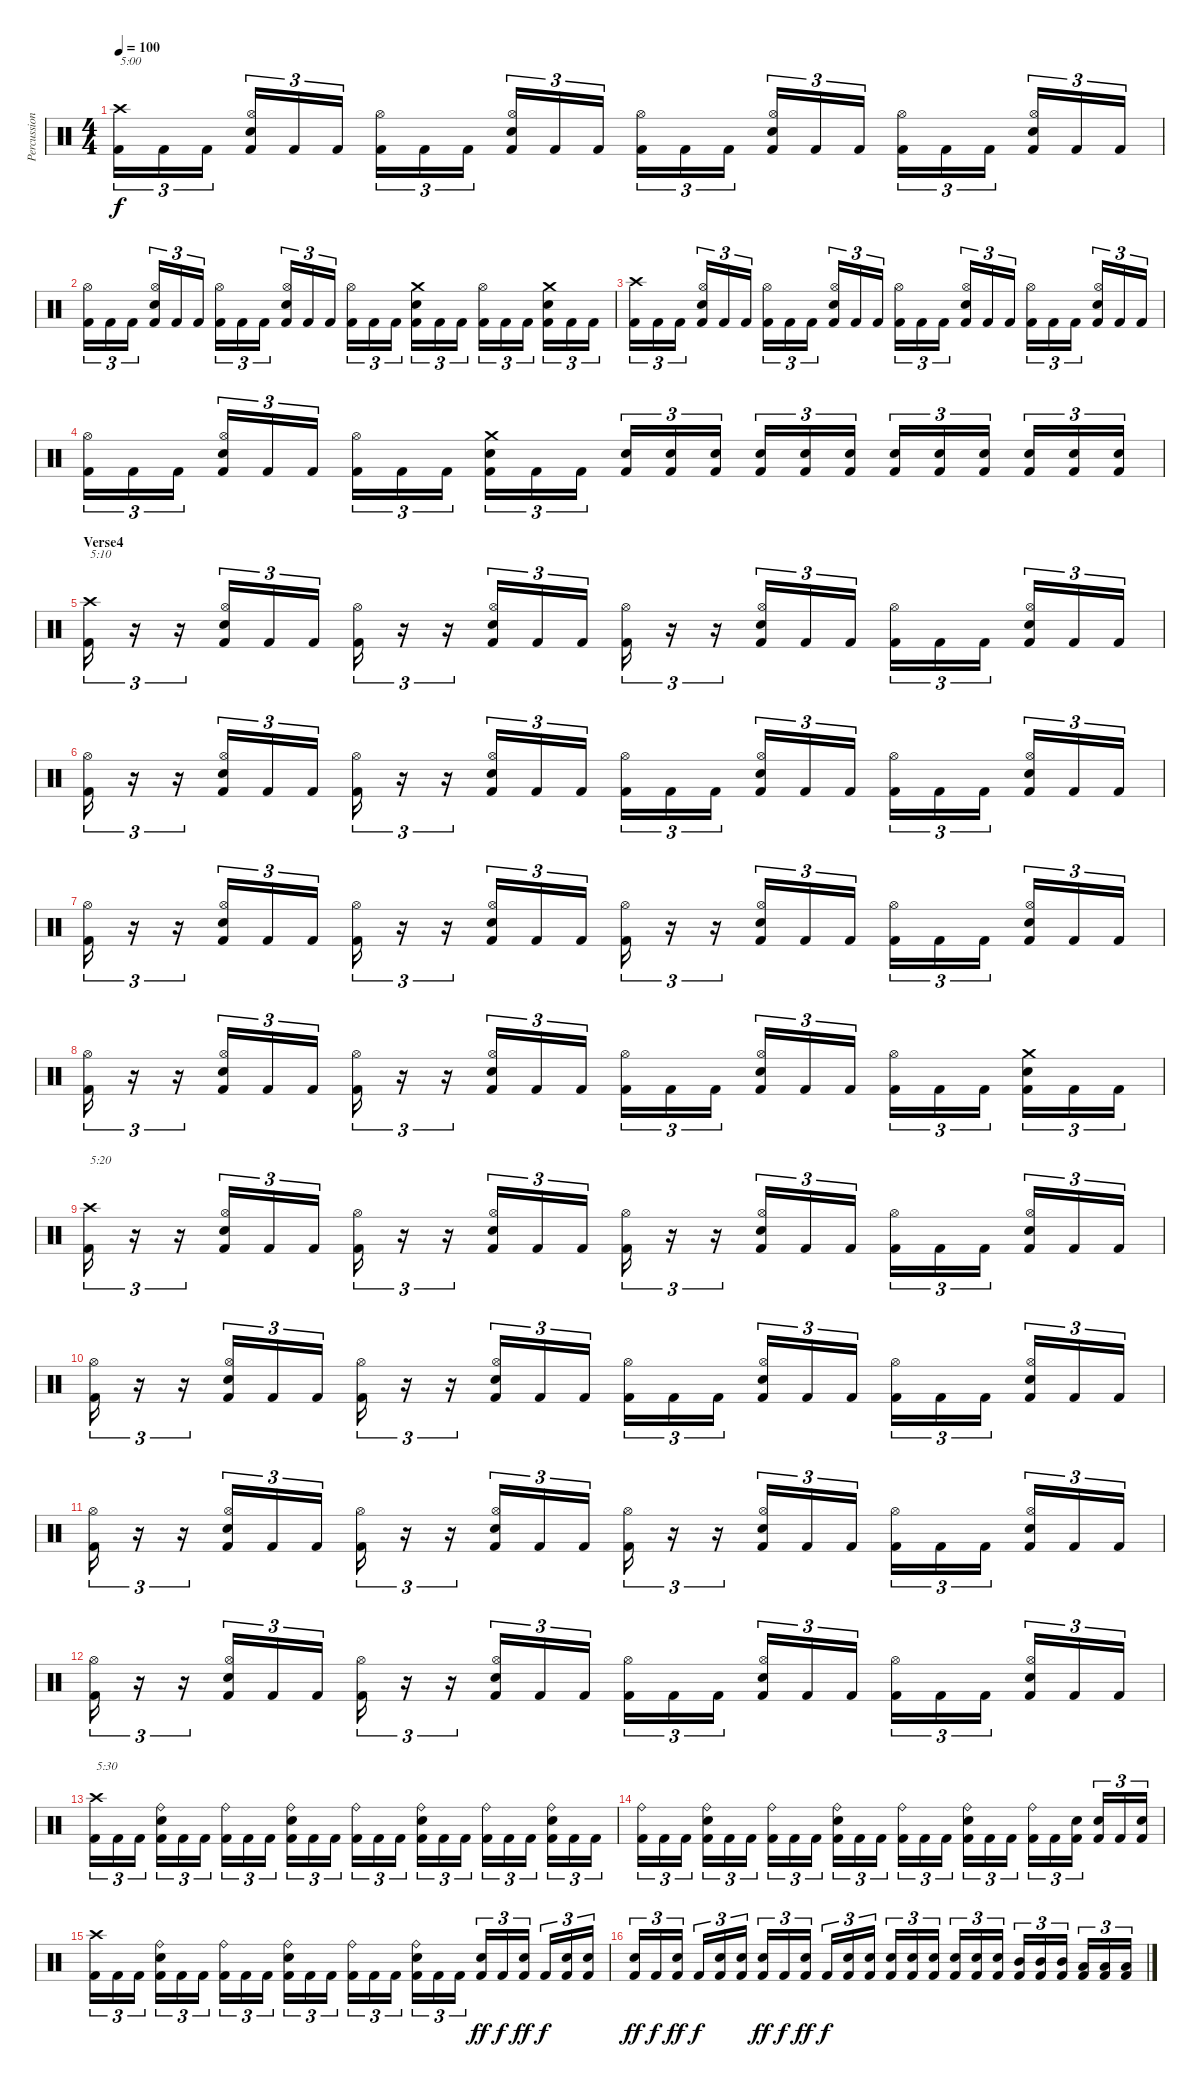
\track ("Percussion" "Percussion") {instrument percussion}
\staff {score}
\articulation defaults
\ts (4 4)
\tempo 100
\clef neutral
\ks c
("Crash high (hit)" "Kick (hit) 2").16{tu (3 2) txt "5:00" dy f} "Kick (hit) 2".16{tu (3 2)} "Kick (hit) 2".16{tu (3 2)} ("Hi-Hat (open)" "Snare (hit) 2" "Kick (hit) 2").16{tu (3 2)} "Kick (hit) 2".16{tu (3 2)} "Kick (hit) 2".16{tu (3 2)} ("Hi-Hat (open)" "Kick (hit) 2").16{tu (3 2)} "Kick (hit) 2".16{tu (3 2)} "Kick (hit) 2".16{tu (3 2)} ("Hi-Hat (open)" "Snare (hit) 2" "Kick (hit) 2").16{tu (3 2)} "Kick (hit) 2".16{tu (3 2)} "Kick (hit) 2".16{tu (3 2)} ("Hi-Hat (open)" "Kick (hit) 2").16{tu (3 2)} "Kick (hit) 2".16{tu (3 2)} "Kick (hit) 2".16{tu (3 2)} ("Hi-Hat (open)" "Snare (hit) 2" "Kick (hit) 2").16{tu (3 2)} "Kick (hit) 2".16{tu (3 2)} "Kick (hit) 2".16{tu (3 2)} ("Hi-Hat (open)" "Kick (hit) 2").16{tu (3 2)} "Kick (hit) 2".16{tu (3 2)} "Kick (hit) 2".16{tu (3 2)} ("Hi-Hat (open)" "Snare (hit) 2" "Kick (hit) 2").16{tu (3 2)} "Kick (hit) 2".16{tu (3 2)} "Kick (hit) 2".16{tu (3 2)} |
("Hi-Hat (open)" "Kick (hit) 2").16{tu (3 2)} "Kick (hit) 2".16{tu (3 2)} "Kick (hit) 2".16{tu (3 2)} ("Hi-Hat (open)" "Snare (hit) 2" "Kick (hit) 2").16{tu (3 2)} "Kick (hit) 2".16{tu (3 2)} "Kick (hit) 2".16{tu (3 2)} ("Hi-Hat (open)" "Kick (hit) 2").16{tu (3 2)} "Kick (hit) 2".16{tu (3 2)} "Kick (hit) 2".16{tu (3 2)} ("Hi-Hat (open)" "Snare (hit) 2" "Kick (hit) 2").16{tu (3 2)} "Kick (hit) 2".16{tu (3 2)} "Kick (hit) 2".16{tu (3 2)} ("Hi-Hat (open)" "Kick (hit) 2").16{tu (3 2)} "Kick (hit) 2".16{tu (3 2)} "Kick (hit) 2".16{tu (3 2)} ("Crash medium (hit)" "Snare (hit) 2" "Kick (hit) 2").16{tu (3 2)} "Kick (hit) 2".16{tu (3 2)} "Kick (hit) 2".16{tu (3 2)} ("Hi-Hat (open)" "Kick (hit) 2").16{tu (3 2)} "Kick (hit) 2".16{tu (3 2)} "Kick (hit) 2".16{tu (3 2)} ("Crash medium (hit)" "Snare (hit) 2" "Kick (hit) 2").16{tu (3 2)} "Kick (hit) 2".16{tu (3 2)} "Kick (hit) 2".16{tu (3 2)} |
("Crash high (hit)" "Kick (hit) 2").16{tu (3 2)} "Kick (hit) 2".16{tu (3 2)} "Kick (hit) 2".16{tu (3 2)} ("Hi-Hat (open)" "Snare (hit) 2" "Kick (hit) 2").16{tu (3 2)} "Kick (hit) 2".16{tu (3 2)} "Kick (hit) 2".16{tu (3 2)} ("Hi-Hat (open)" "Kick (hit) 2").16{tu (3 2)} "Kick (hit) 2".16{tu (3 2)} "Kick (hit) 2".16{tu (3 2)} ("Hi-Hat (open)" "Snare (hit) 2" "Kick (hit) 2").16{tu (3 2)} "Kick (hit) 2".16{tu (3 2)} "Kick (hit) 2".16{tu (3 2)} ("Hi-Hat (open)" "Kick (hit) 2").16{tu (3 2)} "Kick (hit) 2".16{tu (3 2)} "Kick (hit) 2".16{tu (3 2)} ("Hi-Hat (open)" "Snare (hit) 2" "Kick (hit) 2").16{tu (3 2)} "Kick (hit) 2".16{tu (3 2)} "Kick (hit) 2".16{tu (3 2)} ("Hi-Hat (open)" "Kick (hit) 2").16{tu (3 2)} "Kick (hit) 2".16{tu (3 2)} "Kick (hit) 2".16{tu (3 2)} ("Hi-Hat (open)" "Snare (hit) 2" "Kick (hit) 2").16{tu (3 2)} "Kick (hit) 2".16{tu (3 2)} "Kick (hit) 2".16{tu (3 2)} |
("Hi-Hat (open)" "Kick (hit) 2").16{tu (3 2)} "Kick (hit) 2".16{tu (3 2)} "Kick (hit) 2".16{tu (3 2)} ("Hi-Hat (open)" "Snare (hit) 2" "Kick (hit) 2").16{tu (3 2)} "Kick (hit) 2".16{tu (3 2)} "Kick (hit) 2".16{tu (3 2)} ("Hi-Hat (open)" "Kick (hit) 2").16{tu (3 2)} "Kick (hit) 2".16{tu (3 2)} "Kick (hit) 2".16{tu (3 2)} ("Crash medium (hit)" "Snare (hit) 2" "Kick (hit) 2").16{tu (3 2)} "Kick (hit) 2".16{tu (3 2)} "Kick (hit) 2".16{tu (3 2)} ("Snare (hit) 2" "Kick (hit) 2").16{tu (3 2)} ("Snare (hit) 2" "Kick (hit) 2").16{tu (3 2)} ("Snare (hit) 2" "Kick (hit) 2").16{tu (3 2)} ("Snare (hit) 2" "Kick (hit) 2").16{tu (3 2)} ("Snare (hit) 2" "Kick (hit) 2").16{tu (3 2)} ("Snare (hit) 2" "Kick (hit) 2").16{tu (3 2)} ("Snare (hit) 2" "Kick (hit) 2").16{tu (3 2)} ("Snare (hit) 2" "Kick (hit) 2").16{tu (3 2)} ("Snare (hit) 2" "Kick (hit) 2").16{tu (3 2)} ("Snare (hit) 2" "Kick (hit) 2").16{tu (3 2)} ("Snare (hit) 2" "Kick (hit) 2").16{tu (3 2)} ("Snare (hit) 2" "Kick (hit) 2").16{tu (3 2)} |
\section ("" "Verse4")
("Crash high (hit)" "Kick (hit) 2").16{tu (3 2) txt "5:10"} r.16{tu (3 2)} r.16{tu (3 2)} ("Hi-Hat (open)" "Snare (hit) 2" "Kick (hit) 2").16{tu (3 2)} "Kick (hit) 2".16{tu (3 2)} "Kick (hit) 2".16{tu (3 2)} ("Hi-Hat (open)" "Kick (hit) 2").16{tu (3 2)} r.16{tu (3 2)} r.16{tu (3 2)} ("Hi-Hat (open)" "Snare (hit) 2" "Kick (hit) 2").16{tu (3 2)} "Kick (hit) 2".16{tu (3 2)} "Kick (hit) 2".16{tu (3 2)} ("Hi-Hat (open)" "Kick (hit) 2").16{tu (3 2)} r.16{tu (3 2)} r.16{tu (3 2)} ("Hi-Hat (open)" "Snare (hit) 2" "Kick (hit) 2").16{tu (3 2)} "Kick (hit) 2".16{tu (3 2)} "Kick (hit) 2".16{tu (3 2)} ("Hi-Hat (open)" "Kick (hit) 2").16{tu (3 2)} "Kick (hit) 2".16{tu (3 2)} "Kick (hit) 2".16{tu (3 2)} ("Hi-Hat (open)" "Snare (hit) 2" "Kick (hit) 2").16{tu (3 2)} "Kick (hit) 2".16{tu (3 2)} "Kick (hit) 2".16{tu (3 2)} |
("Hi-Hat (open)" "Kick (hit) 2").16{tu (3 2)} r.16{tu (3 2)} r.16{tu (3 2)} ("Hi-Hat (open)" "Snare (hit) 2" "Kick (hit) 2").16{tu (3 2)} "Kick (hit) 2".16{tu (3 2)} "Kick (hit) 2".16{tu (3 2)} ("Hi-Hat (open)" "Kick (hit) 2").16{tu (3 2)} r.16{tu (3 2)} r.16{tu (3 2)} ("Hi-Hat (open)" "Snare (hit) 2" "Kick (hit) 2").16{tu (3 2)} "Kick (hit) 2".16{tu (3 2)} "Kick (hit) 2".16{tu (3 2)} ("Hi-Hat (open)" "Kick (hit) 2").16{tu (3 2)} "Kick (hit) 2".16{tu (3 2)} "Kick (hit) 2".16{tu (3 2)} ("Hi-Hat (open)" "Snare (hit) 2" "Kick (hit) 2").16{tu (3 2)} "Kick (hit) 2".16{tu (3 2)} "Kick (hit) 2".16{tu (3 2)} ("Hi-Hat (open)" "Kick (hit) 2").16{tu (3 2)} "Kick (hit) 2".16{tu (3 2)} "Kick (hit) 2".16{tu (3 2)} ("Hi-Hat (open)" "Snare (hit) 2" "Kick (hit) 2").16{tu (3 2)} "Kick (hit) 2".16{tu (3 2)} "Kick (hit) 2".16{tu (3 2)} |
("Hi-Hat (open)" "Kick (hit) 2").16{tu (3 2)} r.16{tu (3 2)} r.16{tu (3 2)} ("Hi-Hat (open)" "Snare (hit) 2" "Kick (hit) 2").16{tu (3 2)} "Kick (hit) 2".16{tu (3 2)} "Kick (hit) 2".16{tu (3 2)} ("Hi-Hat (open)" "Kick (hit) 2").16{tu (3 2)} r.16{tu (3 2)} r.16{tu (3 2)} ("Hi-Hat (open)" "Snare (hit) 2" "Kick (hit) 2").16{tu (3 2)} "Kick (hit) 2".16{tu (3 2)} "Kick (hit) 2".16{tu (3 2)} ("Hi-Hat (open)" "Kick (hit) 2").16{tu (3 2)} r.16{tu (3 2)} r.16{tu (3 2)} ("Hi-Hat (open)" "Snare (hit) 2" "Kick (hit) 2").16{tu (3 2)} "Kick (hit) 2".16{tu (3 2)} "Kick (hit) 2".16{tu (3 2)} ("Hi-Hat (open)" "Kick (hit) 2").16{tu (3 2)} "Kick (hit) 2".16{tu (3 2)} "Kick (hit) 2".16{tu (3 2)} ("Hi-Hat (open)" "Snare (hit) 2" "Kick (hit) 2").16{tu (3 2)} "Kick (hit) 2".16{tu (3 2)} "Kick (hit) 2".16{tu (3 2)} |
("Hi-Hat (open)" "Kick (hit) 2").16{tu (3 2)} r.16{tu (3 2)} r.16{tu (3 2)} ("Hi-Hat (open)" "Snare (hit) 2" "Kick (hit) 2").16{tu (3 2)} "Kick (hit) 2".16{tu (3 2)} "Kick (hit) 2".16{tu (3 2)} ("Hi-Hat (open)" "Kick (hit) 2").16{tu (3 2)} r.16{tu (3 2)} r.16{tu (3 2)} ("Hi-Hat (open)" "Snare (hit) 2" "Kick (hit) 2").16{tu (3 2)} "Kick (hit) 2".16{tu (3 2)} "Kick (hit) 2".16{tu (3 2)} ("Hi-Hat (open)" "Kick (hit) 2").16{tu (3 2)} "Kick (hit) 2".16{tu (3 2)} "Kick (hit) 2".16{tu (3 2)} ("Hi-Hat (open)" "Snare (hit) 2" "Kick (hit) 2").16{tu (3 2)} "Kick (hit) 2".16{tu (3 2)} "Kick (hit) 2".16{tu (3 2)} ("Hi-Hat (open)" "Kick (hit) 2").16{tu (3 2)} "Kick (hit) 2".16{tu (3 2)} "Kick (hit) 2".16{tu (3 2)} ("Crash medium (hit)" "Snare (hit) 2" "Kick (hit) 2").16{tu (3 2)} "Kick (hit) 2".16{tu (3 2)} "Kick (hit) 2".16{tu (3 2)} |
("Crash high (hit)" "Kick (hit) 2").16{tu (3 2) txt "5:20"} r.16{tu (3 2)} r.16{tu (3 2)} ("Hi-Hat (open)" "Snare (hit) 2" "Kick (hit) 2").16{tu (3 2)} "Kick (hit) 2".16{tu (3 2)} "Kick (hit) 2".16{tu (3 2)} ("Hi-Hat (open)" "Kick (hit) 2").16{tu (3 2)} r.16{tu (3 2)} r.16{tu (3 2)} ("Hi-Hat (open)" "Snare (hit) 2" "Kick (hit) 2").16{tu (3 2)} "Kick (hit) 2".16{tu (3 2)} "Kick (hit) 2".16{tu (3 2)} ("Hi-Hat (open)" "Kick (hit) 2").16{tu (3 2)} r.16{tu (3 2)} r.16{tu (3 2)} ("Hi-Hat (open)" "Snare (hit) 2" "Kick (hit) 2").16{tu (3 2)} "Kick (hit) 2".16{tu (3 2)} "Kick (hit) 2".16{tu (3 2)} ("Hi-Hat (open)" "Kick (hit) 2").16{tu (3 2)} "Kick (hit) 2".16{tu (3 2)} "Kick (hit) 2".16{tu (3 2)} ("Hi-Hat (open)" "Snare (hit) 2" "Kick (hit) 2").16{tu (3 2)} "Kick (hit) 2".16{tu (3 2)} "Kick (hit) 2".16{tu (3 2)} |
("Hi-Hat (open)" "Kick (hit) 2").16{tu (3 2)} r.16{tu (3 2)} r.16{tu (3 2)} ("Hi-Hat (open)" "Snare (hit) 2" "Kick (hit) 2").16{tu (3 2)} "Kick (hit) 2".16{tu (3 2)} "Kick (hit) 2".16{tu (3 2)} ("Hi-Hat (open)" "Kick (hit) 2").16{tu (3 2)} r.16{tu (3 2)} r.16{tu (3 2)} ("Hi-Hat (open)" "Snare (hit) 2" "Kick (hit) 2").16{tu (3 2)} "Kick (hit) 2".16{tu (3 2)} "Kick (hit) 2".16{tu (3 2)} ("Hi-Hat (open)" "Kick (hit) 2").16{tu (3 2)} "Kick (hit) 2".16{tu (3 2)} "Kick (hit) 2".16{tu (3 2)} ("Hi-Hat (open)" "Snare (hit) 2" "Kick (hit) 2").16{tu (3 2)} "Kick (hit) 2".16{tu (3 2)} "Kick (hit) 2".16{tu (3 2)} ("Hi-Hat (open)" "Kick (hit) 2").16{tu (3 2)} "Kick (hit) 2".16{tu (3 2)} "Kick (hit) 2".16{tu (3 2)} ("Hi-Hat (open)" "Snare (hit) 2" "Kick (hit) 2").16{tu (3 2)} "Kick (hit) 2".16{tu (3 2)} "Kick (hit) 2".16{tu (3 2)} |
("Hi-Hat (open)" "Kick (hit) 2").16{tu (3 2)} r.16{tu (3 2)} r.16{tu (3 2)} ("Hi-Hat (open)" "Snare (hit) 2" "Kick (hit) 2").16{tu (3 2)} "Kick (hit) 2".16{tu (3 2)} "Kick (hit) 2".16{tu (3 2)} ("Hi-Hat (open)" "Kick (hit) 2").16{tu (3 2)} r.16{tu (3 2)} r.16{tu (3 2)} ("Hi-Hat (open)" "Snare (hit) 2" "Kick (hit) 2").16{tu (3 2)} "Kick (hit) 2".16{tu (3 2)} "Kick (hit) 2".16{tu (3 2)} ("Hi-Hat (open)" "Kick (hit) 2").16{tu (3 2)} r.16{tu (3 2)} r.16{tu (3 2)} ("Hi-Hat (open)" "Snare (hit) 2" "Kick (hit) 2").16{tu (3 2)} "Kick (hit) 2".16{tu (3 2)} "Kick (hit) 2".16{tu (3 2)} ("Hi-Hat (open)" "Kick (hit) 2").16{tu (3 2)} "Kick (hit) 2".16{tu (3 2)} "Kick (hit) 2".16{tu (3 2)} ("Hi-Hat (open)" "Snare (hit) 2" "Kick (hit) 2").16{tu (3 2)} "Kick (hit) 2".16{tu (3 2)} "Kick (hit) 2".16{tu (3 2)} |
("Hi-Hat (open)" "Kick (hit) 2").16{tu (3 2)} r.16{tu (3 2)} r.16{tu (3 2)} ("Hi-Hat (open)" "Snare (hit) 2" "Kick (hit) 2").16{tu (3 2)} "Kick (hit) 2".16{tu (3 2)} "Kick (hit) 2".16{tu (3 2)} ("Hi-Hat (open)" "Kick (hit) 2").16{tu (3 2)} r.16{tu (3 2)} r.16{tu (3 2)} ("Hi-Hat (open)" "Snare (hit) 2" "Kick (hit) 2").16{tu (3 2)} "Kick (hit) 2".16{tu (3 2)} "Kick (hit) 2".16{tu (3 2)} ("Hi-Hat (open)" "Kick (hit) 2").16{tu (3 2)} "Kick (hit) 2".16{tu (3 2)} "Kick (hit) 2".16{tu (3 2)} ("Hi-Hat (open)" "Snare (hit) 2" "Kick (hit) 2").16{tu (3 2)} "Kick (hit) 2".16{tu (3 2)} "Kick (hit) 2".16{tu (3 2)} ("Hi-Hat (open)" "Kick (hit) 2").16{tu (3 2)} "Kick (hit) 2".16{tu (3 2)} "Kick (hit) 2".16{tu (3 2)} ("Hi-Hat (open)" "Snare (hit) 2" "Kick (hit) 2").16{tu (3 2)} "Kick (hit) 2".16{tu (3 2)} "Kick (hit) 2".16{tu (3 2)} |
("Crash high (hit)" "Kick (hit) 2").16{tu (3 2) txt "5:30"} "Kick (hit) 2".16{tu (3 2)} "Kick (hit) 2".16{tu (3 2)} ("Ride (bell)" "Snare (hit) 2" "Kick (hit) 2").16{tu (3 2)} "Kick (hit) 2".16{tu (3 2)} "Kick (hit) 2".16{tu (3 2)} ("Ride (bell)" "Kick (hit) 2").16{tu (3 2)} "Kick (hit) 2".16{tu (3 2)} "Kick (hit) 2".16{tu (3 2)} ("Ride (bell)" "Snare (hit) 2" "Kick (hit) 2").16{tu (3 2)} "Kick (hit) 2".16{tu (3 2)} "Kick (hit) 2".16{tu (3 2)} ("Ride (bell)" "Kick (hit) 2").16{tu (3 2)} "Kick (hit) 2".16{tu (3 2)} "Kick (hit) 2".16{tu (3 2)} ("Ride (bell)" "Snare (hit) 2" "Kick (hit) 2").16{tu (3 2)} "Kick (hit) 2".16{tu (3 2)} "Kick (hit) 2".16{tu (3 2)} ("Ride (bell)" "Kick (hit) 2").16{tu (3 2)} "Kick (hit) 2".16{tu (3 2)} "Kick (hit) 2".16{tu (3 2)} ("Ride (bell)" "Snare (hit) 2" "Kick (hit) 2").16{tu (3 2)} "Kick (hit) 2".16{tu (3 2)} "Kick (hit) 2".16{tu (3 2)} |
("Ride (bell)" "Kick (hit) 2").16{tu (3 2)} "Kick (hit) 2".16{tu (3 2)} "Kick (hit) 2".16{tu (3 2)} ("Ride (bell)" "Snare (hit) 2" "Kick (hit) 2").16{tu (3 2)} "Kick (hit) 2".16{tu (3 2)} "Kick (hit) 2".16{tu (3 2)} ("Ride (bell)" "Kick (hit) 2").16{tu (3 2)} "Kick (hit) 2".16{tu (3 2)} "Kick (hit) 2".16{tu (3 2)} ("Ride (bell)" "Snare (hit) 2" "Kick (hit) 2").16{tu (3 2)} "Kick (hit) 2".16{tu (3 2)} "Kick (hit) 2".16{tu (3 2)} ("Ride (bell)" "Kick (hit) 2").16{tu (3 2)} "Kick (hit) 2".16{tu (3 2)} "Kick (hit) 2".16{tu (3 2)} ("Ride (bell)" "Snare (hit) 2" "Kick (hit) 2").16{tu (3 2)} "Kick (hit) 2".16{tu (3 2)} "Kick (hit) 2".16{tu (3 2)} ("Ride (bell)" "Kick (hit) 2").16{tu (3 2)} "Kick (hit) 2".16{tu (3 2)} ("Snare (hit) 2" "Kick (hit) 2").16{tu (3 2)} ("Snare (hit) 2" "Kick (hit) 2").16{tu (3 2)} "Kick (hit) 2".16{tu (3 2)} ("Snare (hit) 2" "Kick (hit) 2").16{tu (3 2)} |
("Crash high (hit)" "Kick (hit) 2").16{tu (3 2)} "Kick (hit) 2".16{tu (3 2)} "Kick (hit) 2".16{tu (3 2)} ("Ride (bell)" "Snare (hit) 2" "Kick (hit) 2").16{tu (3 2)} "Kick (hit) 2".16{tu (3 2)} "Kick (hit) 2".16{tu (3 2)} ("Ride (bell)" "Kick (hit) 2").16{tu (3 2)} "Kick (hit) 2".16{tu (3 2)} "Kick (hit) 2".16{tu (3 2)} ("Ride (bell)" "Snare (hit) 2" "Kick (hit) 2").16{tu (3 2)} "Kick (hit) 2".16{tu (3 2)} "Kick (hit) 2".16{tu (3 2)} ("Ride (bell)" "Kick (hit) 2").16{tu (3 2)} "Kick (hit) 2".16{tu (3 2)} "Kick (hit) 2".16{tu (3 2)} ("Ride (bell)" "Snare (hit) 2" "Kick (hit) 2").16{tu (3 2)} "Kick (hit) 2".16{tu (3 2)} "Kick (hit) 2".16{tu (3 2)} ("Snare (hit) 2" "Kick (hit) 2").16{tu (3 2) dy ff} "Kick (hit) 2".16{tu (3 2) dy f} ("Snare (hit) 2" "Kick (hit) 2").16{tu (3 2) dy ff} "Kick (hit) 2".16{tu (3 2) dy f} ("Snare (hit) 2" "Kick (hit) 2").16{tu (3 2)} ("Snare (hit) 2" "Kick (hit) 2").16{tu (3 2)} |
("Snare (hit) 2" "Kick (hit) 2").16{tu (3 2) dy ff} "Kick (hit) 2".16{tu (3 2) dy f} ("Snare (hit) 2" "Kick (hit) 2").16{tu (3 2) dy ff} "Kick (hit) 2".16{tu (3 2) dy f} ("Snare (hit) 2" "Kick (hit) 2").16{tu (3 2)} ("Snare (hit) 2" "Kick (hit) 2").16{tu (3 2)} ("Snare (hit) 2" "Kick (hit) 2").16{tu (3 2) dy ff} "Kick (hit) 2".16{tu (3 2) dy f} ("Snare (hit) 2" "Kick (hit) 2").16{tu (3 2) dy ff} "Kick (hit) 2".16{tu (3 2) dy f} ("Snare (hit) 2" "Kick (hit) 2").16{tu (3 2)} ("Snare (hit) 2" "Kick (hit) 2").16{tu (3 2)} ("Snare (hit) 2" "Kick (hit) 2").16{tu (3 2)} ("Snare (hit) 2" "Kick (hit) 2").16{tu (3 2)} ("Snare (hit) 2" "Kick (hit) 2").16{tu (3 2)} ("Snare (hit) 2" "Kick (hit) 2").16{tu (3 2)} ("Snare (hit) 2" "Kick (hit) 2").16{tu (3 2)} ("Snare (hit) 2" "Kick (hit) 2").16{tu (3 2)} ("Mid Tom (hit)" "Kick (hit) 2").16{tu (3 2)} ("Mid Tom (hit)" "Kick (hit) 2").16{tu (3 2)} ("Mid Tom (hit)" "Kick (hit) 2").16{tu (3 2)} ("Low Tom (hit)" "Kick (hit) 2").16{tu (3 2)} ("Low Tom (hit)" "Kick (hit) 2").16{tu (3 2)} ("Low Tom (hit)" "Kick (hit) 2").16{tu (3 2)}
